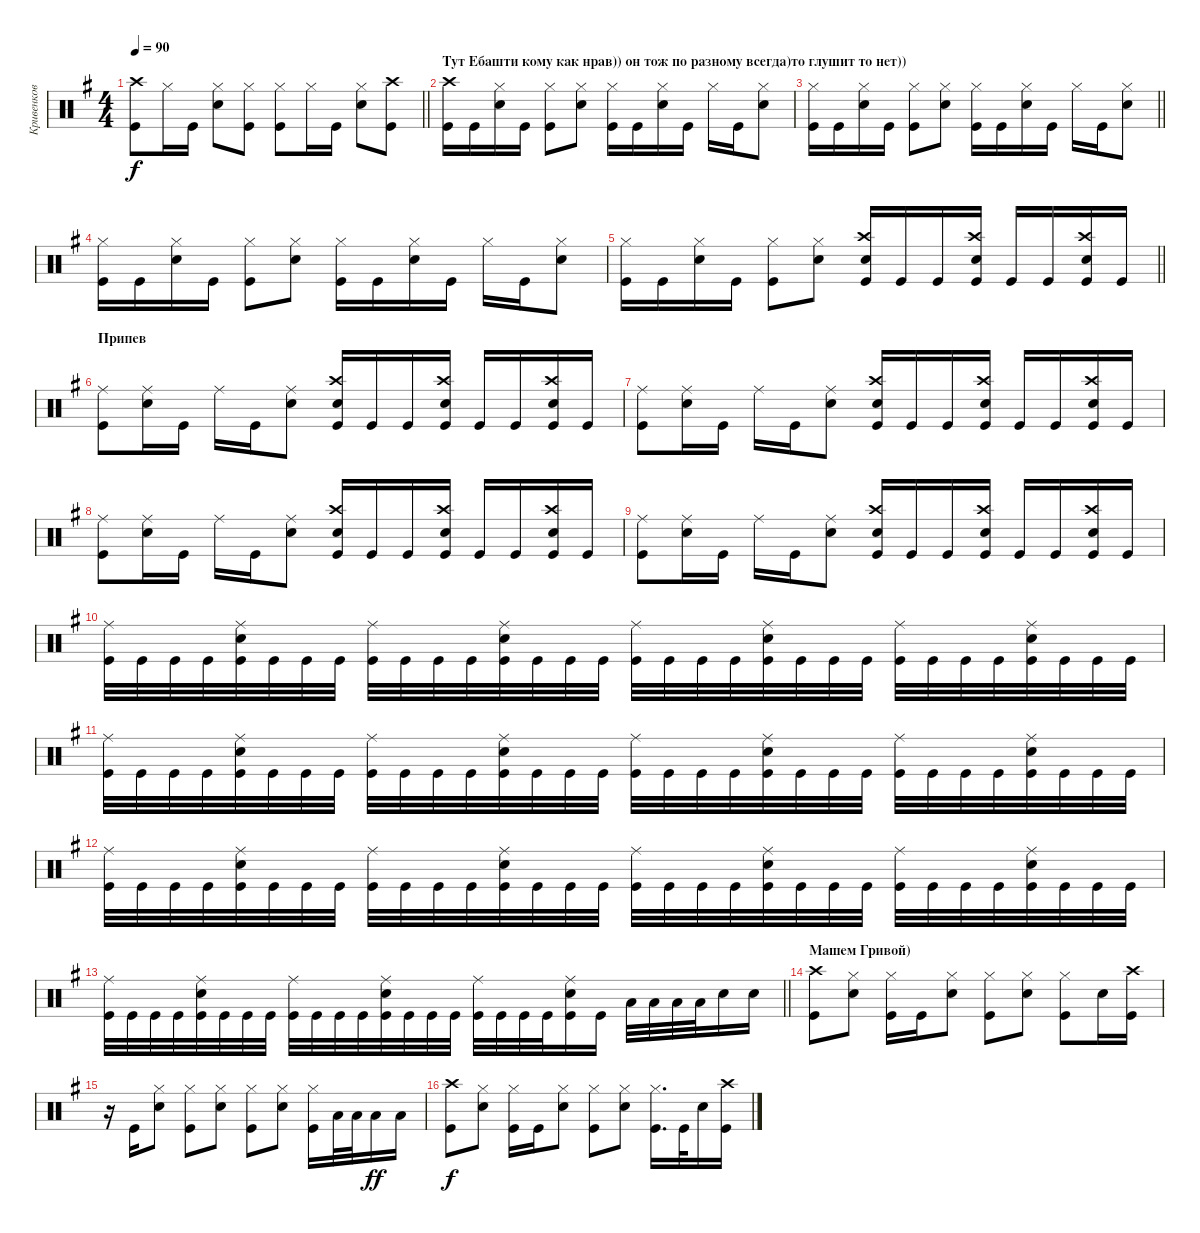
\track ("Кривенков" "Кривенков") {instrument percussion}
\staff {score}
\articulation defaults
\ts (4 4)
\tempo 90
\clef neutral
\barLineRight lightlight
\ks eminor
("Kick (hit)" "Crash high (hit)").8{dy f} "Hi-Hat (closed)".16 "Kick (hit)".16 ("Hi-Hat (closed)" "Snare (hit) 2").8 ("Hi-Hat (closed)" "Kick (hit)").8 ("Hi-Hat (closed)" "Kick (hit)").8 "Hi-Hat (closed)".16 "Kick (hit)".16 ("Hi-Hat (closed)" "Snare (hit) 2").8 ("Crash high (hit)" "Kick (hit)").8 |
\section ("" "Тут Ебашти кому как нрав)) он тож по разному всегда)то глушит то нет)) ")
("Kick (hit)" "Crash high (hit)").16 "Kick (hit)".16 ("Snare (hit) 2" "Hi-Hat (closed)").16 "Kick (hit)".16 ("Kick (hit)" "Hi-Hat (closed)").8 ("Snare (hit) 2" "Hi-Hat (closed)").8 ("Kick (hit)" "Hi-Hat (closed)").16 "Kick (hit)".16 ("Snare (hit) 2" "Hi-Hat (closed)").16 "Kick (hit)".16 "Hi-Hat (closed)".16 "Kick (hit)".16 ("Snare (hit) 2" "Hi-Hat (closed)").8 |
\barLineRight lightlight
("Kick (hit)" "Hi-Hat (closed)").16 "Kick (hit)".16 ("Snare (hit) 2" "Hi-Hat (closed)").16 "Kick (hit)".16 ("Kick (hit)" "Hi-Hat (closed)").8 ("Snare (hit) 2" "Hi-Hat (closed)").8 ("Kick (hit)" "Hi-Hat (closed)").16 "Kick (hit)".16 ("Snare (hit) 2" "Hi-Hat (closed)").16 "Kick (hit)".16 "Hi-Hat (closed)".16 "Kick (hit)".16 ("Snare (hit) 2" "Hi-Hat (closed)").8 |
\section ("" "")
("Kick (hit)" "Hi-Hat (closed)").16 "Kick (hit)".16 ("Snare (hit) 2" "Hi-Hat (closed)").16 "Kick (hit)".16 ("Kick (hit)" "Hi-Hat (closed)").8 ("Snare (hit) 2" "Hi-Hat (closed)").8 ("Kick (hit)" "Hi-Hat (closed)").16 "Kick (hit)".16 ("Snare (hit) 2" "Hi-Hat (closed)").16 "Kick (hit)".16 "Hi-Hat (closed)".16 "Kick (hit)".16 ("Snare (hit) 2" "Hi-Hat (closed)").8 |
\barLineRight lightlight
("Kick (hit)" "Hi-Hat (closed)").16 "Kick (hit)".16 ("Snare (hit) 2" "Hi-Hat (closed)").16 "Kick (hit)".16 ("Kick (hit)" "Hi-Hat (closed)").8 ("Snare (hit) 2" "Hi-Hat (closed)").8 ("Snare (hit) 2" "Crash high (hit)" "Kick (hit)").16 "Kick (hit)".16 "Kick (hit)".16 ("Snare (hit) 2" "Crash high (hit)" "Kick (hit)").16 "Kick (hit)".16 "Kick (hit)".16 ("Snare (hit) 2" "Crash high (hit)" "Kick (hit)").16 "Kick (hit)".16 |
\section ("" "Припев")
("Kick (hit)" "Ride (middle)").8 ("Snare (hit) 2" "Ride (middle)").16 "Kick (hit)".16 "Ride (middle)".16 "Kick (hit)".16 ("Snare (hit) 2" "Ride (middle)").8 ("Snare (hit) 2" "Crash high (hit)" "Kick (hit)").16 "Kick (hit)".16 "Kick (hit)".16 ("Snare (hit) 2" "Crash high (hit)" "Kick (hit)").16 "Kick (hit)".16 "Kick (hit)".16 ("Snare (hit) 2" "Crash high (hit)" "Kick (hit)").16 "Kick (hit)".16 |
("Kick (hit)" "Ride (middle)").8 ("Snare (hit) 2" "Ride (middle)").16 "Kick (hit)".16 "Ride (middle)".16 "Kick (hit)".16 ("Snare (hit) 2" "Ride (middle)").8 ("Snare (hit) 2" "Crash high (hit)" "Kick (hit)").16 "Kick (hit)".16 "Kick (hit)".16 ("Snare (hit) 2" "Crash high (hit)" "Kick (hit)").16 "Kick (hit)".16 "Kick (hit)".16 ("Snare (hit) 2" "Crash high (hit)" "Kick (hit)").16 "Kick (hit)".16 |
("Kick (hit)" "Ride (middle)").8 ("Snare (hit) 2" "Ride (middle)").16 "Kick (hit)".16 "Ride (middle)".16 "Kick (hit)".16 ("Snare (hit) 2" "Ride (middle)").8 ("Snare (hit) 2" "Crash high (hit)" "Kick (hit)").16 "Kick (hit)".16 "Kick (hit)".16 ("Snare (hit) 2" "Crash high (hit)" "Kick (hit)").16 "Kick (hit)".16 "Kick (hit)".16 ("Snare (hit) 2" "Crash high (hit)" "Kick (hit)").16 "Kick (hit)".16 |
("Kick (hit)" "Ride (middle)").8 ("Snare (hit) 2" "Ride (middle)").16 "Kick (hit)".16 "Ride (middle)".16 "Kick (hit)".16 ("Snare (hit) 2" "Ride (middle)").8 ("Snare (hit) 2" "Crash high (hit)" "Kick (hit)").16 "Kick (hit)".16 "Kick (hit)".16 ("Snare (hit) 2" "Crash high (hit)" "Kick (hit)").16 "Kick (hit)".16 "Kick (hit)".16 ("Snare (hit) 2" "Crash high (hit)" "Kick (hit)").16 "Kick (hit)".16 |
("Kick (hit)" "Ride (middle)").32 "Kick (hit)".32 "Kick (hit)".32 "Kick (hit)".32 ("Kick (hit)" "Snare (hit) 2" "Ride (middle)").32 "Kick (hit)".32 "Kick (hit)".32 "Kick (hit)".32 ("Kick (hit)" "Ride (middle)").32 "Kick (hit)".32 "Kick (hit)".32 "Kick (hit)".32 ("Kick (hit)" "Snare (hit) 2" "Ride (middle)").32 "Kick (hit)".32 "Kick (hit)".32 "Kick (hit)".32 ("Kick (hit)" "Ride (middle)").32 "Kick (hit)".32 "Kick (hit)".32 "Kick (hit)".32 ("Kick (hit)" "Snare (hit) 2" "Ride (middle)").32 "Kick (hit)".32 "Kick (hit)".32 "Kick (hit)".32 ("Kick (hit)" "Ride (middle)").32 "Kick (hit)".32 "Kick (hit)".32 "Kick (hit)".32 ("Kick (hit)" "Snare (hit) 2" "Ride (middle)").32 "Kick (hit)".32 "Kick (hit)".32 "Kick (hit)".32 |
("Kick (hit)" "Ride (middle)").32 "Kick (hit)".32 "Kick (hit)".32 "Kick (hit)".32 ("Kick (hit)" "Snare (hit) 2" "Ride (middle)").32 "Kick (hit)".32 "Kick (hit)".32 "Kick (hit)".32 ("Kick (hit)" "Ride (middle)").32 "Kick (hit)".32 "Kick (hit)".32 "Kick (hit)".32 ("Kick (hit)" "Snare (hit) 2" "Ride (middle)").32 "Kick (hit)".32 "Kick (hit)".32 "Kick (hit)".32 ("Kick (hit)" "Ride (middle)").32 "Kick (hit)".32 "Kick (hit)".32 "Kick (hit)".32 ("Kick (hit)" "Snare (hit) 2" "Ride (middle)").32 "Kick (hit)".32 "Kick (hit)".32 "Kick (hit)".32 ("Kick (hit)" "Ride (middle)").32 "Kick (hit)".32 "Kick (hit)".32 "Kick (hit)".32 ("Kick (hit)" "Snare (hit) 2" "Ride (middle)").32 "Kick (hit)".32 "Kick (hit)".32 "Kick (hit)".32 |
("Kick (hit)" "Ride (middle)").32 "Kick (hit)".32 "Kick (hit)".32 "Kick (hit)".32 ("Kick (hit)" "Snare (hit) 2" "Ride (middle)").32 "Kick (hit)".32 "Kick (hit)".32 "Kick (hit)".32 ("Kick (hit)" "Ride (middle)").32 "Kick (hit)".32 "Kick (hit)".32 "Kick (hit)".32 ("Kick (hit)" "Snare (hit) 2" "Ride (middle)").32 "Kick (hit)".32 "Kick (hit)".32 "Kick (hit)".32 ("Kick (hit)" "Ride (middle)").32 "Kick (hit)".32 "Kick (hit)".32 "Kick (hit)".32 ("Kick (hit)" "Snare (hit) 2" "Ride (middle)").32 "Kick (hit)".32 "Kick (hit)".32 "Kick (hit)".32 ("Kick (hit)" "Ride (middle)").32 "Kick (hit)".32 "Kick (hit)".32 "Kick (hit)".32 ("Kick (hit)" "Snare (hit) 2" "Ride (middle)").32 "Kick (hit)".32 "Kick (hit)".32 "Kick (hit)".32 |
\barLineRight lightlight
("Kick (hit)" "Ride (middle)").32 "Kick (hit)".32 "Kick (hit)".32 "Kick (hit)".32 ("Kick (hit)" "Snare (hit) 2" "Ride (middle)").32 "Kick (hit)".32 "Kick (hit)".32 "Kick (hit)".32 ("Kick (hit)" "Ride (middle)").32 "Kick (hit)".32 "Kick (hit)".32 "Kick (hit)".32 ("Kick (hit)" "Snare (hit) 2" "Ride (middle)").32 "Kick (hit)".32 "Kick (hit)".32 "Kick (hit)".32 ("Kick (hit)" "Ride (middle)").32 "Kick (hit)".32 "Kick (hit)".32 "Kick (hit)".32 ("Kick (hit)" "Snare (hit) 2" "Ride (middle)").16 "Kick (hit)".16 "Low Tom (hit)".32 "Low Tom (hit)".32 "Low Tom (hit)".32 "Low Tom (hit)".32 "Snare (hit) 2".16 "Snare (hit) 2".16 |
\section ("" "Машем Гривой) ")
("Kick (hit)" "Crash high (hit)").8 ("Snare (hit) 2" "Hi-Hat (closed)").8 ("Kick (hit)" "Hi-Hat (closed)").16 "Kick (hit)".16 ("Snare (hit) 2" "Hi-Hat (closed)").8 ("Kick (hit)" "Hi-Hat (closed)").8 ("Snare (hit) 2" "Hi-Hat (closed)").8 ("Kick (hit)" "Hi-Hat (closed)").8 "Snare (hit) 2".16 ("Kick (hit)" "Crash high (hit)").16 |
r.16 "Kick (hit)".16 ("Snare (hit) 2" "Hi-Hat (closed)").8 ("Kick (hit)" "Hi-Hat (closed)").8 ("Snare (hit) 2" "Hi-Hat (closed)").8 ("Kick (hit)" "Hi-Hat (closed)").8 ("Snare (hit) 2" "Hi-Hat (closed)").8 ("Kick (hit)" "Hi-Hat (closed)").16 "Low Tom (hit)".32 "Low Tom (hit)".32 "Low Tom (hit)".16{dy ff} "Low Tom (hit)".16 |
("Kick (hit)" "Crash high (hit)").8{dy f} ("Snare (hit) 2" "Hi-Hat (closed)").8 ("Kick (hit)" "Hi-Hat (closed)").16 "Kick (hit)".16 ("Snare (hit) 2" "Hi-Hat (closed)").8 ("Kick (hit)" "Hi-Hat (closed)").8 ("Snare (hit) 2" "Hi-Hat (closed)").8 ("Kick (hit)" "Hi-Hat (closed)").16{d} "Kick (hit)".32 "Snare (hit) 2".16 ("Kick (hit)" "Crash high (hit)").16
